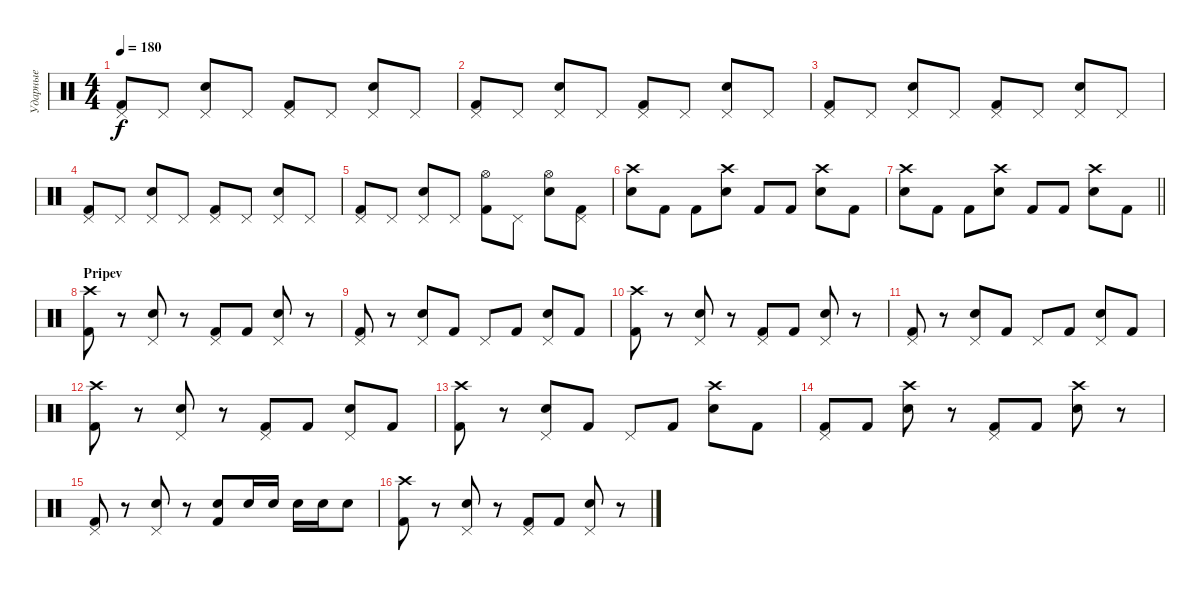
\track ("Ударные" "Ударные") {instrument percussion}
\staff {score}
\articulation defaults
\ts (4 4)
\tempo 180
\clef neutral
\ks c
("Pedal Hi-Hat (hit)" "Kick (hit) 2").8{dy f} "Pedal Hi-Hat (hit)".8 ("Pedal Hi-Hat (hit)" "Electric Snare (hit)").8 "Pedal Hi-Hat (hit)".8 ("Pedal Hi-Hat (hit)" "Kick (hit) 2").8 "Pedal Hi-Hat (hit)".8 ("Pedal Hi-Hat (hit)" "Electric Snare (hit)").8 "Pedal Hi-Hat (hit)".8 |
("Pedal Hi-Hat (hit)" "Kick (hit) 2").8 "Pedal Hi-Hat (hit)".8 ("Pedal Hi-Hat (hit)" "Electric Snare (hit)").8 "Pedal Hi-Hat (hit)".8 ("Pedal Hi-Hat (hit)" "Kick (hit) 2").8 "Pedal Hi-Hat (hit)".8 ("Pedal Hi-Hat (hit)" "Electric Snare (hit)").8 "Pedal Hi-Hat (hit)".8 |
("Pedal Hi-Hat (hit)" "Kick (hit) 2").8 "Pedal Hi-Hat (hit)".8 ("Pedal Hi-Hat (hit)" "Electric Snare (hit)").8 "Pedal Hi-Hat (hit)".8 ("Pedal Hi-Hat (hit)" "Kick (hit) 2").8 "Pedal Hi-Hat (hit)".8 ("Pedal Hi-Hat (hit)" "Electric Snare (hit)").8 "Pedal Hi-Hat (hit)".8 |
("Pedal Hi-Hat (hit)" "Kick (hit) 2").8 "Pedal Hi-Hat (hit)".8 ("Pedal Hi-Hat (hit)" "Electric Snare (hit)").8 "Pedal Hi-Hat (hit)".8 ("Pedal Hi-Hat (hit)" "Kick (hit) 2").8 "Pedal Hi-Hat (hit)".8 ("Pedal Hi-Hat (hit)" "Electric Snare (hit)").8 "Pedal Hi-Hat (hit)".8 |
("Pedal Hi-Hat (hit)" "Kick (hit) 2").8 "Pedal Hi-Hat (hit)".8 ("Pedal Hi-Hat (hit)" "Electric Snare (hit)").8 "Pedal Hi-Hat (hit)".8 ("Hi-Hat (open)" "Kick (hit) 2").8 "Pedal Hi-Hat (hit)".8 ("Hi-Hat (open)" "Electric Snare (hit)").8 ("Pedal Hi-Hat (hit)" "Kick (hit) 2").8 |
("Crash high (hit)" "Electric Snare (hit)").8 "Kick (hit) 2".8 "Kick (hit) 2".8 ("Crash high (hit)" "Electric Snare (hit)").8 "Kick (hit) 2".8 "Kick (hit) 2".8 ("Crash high (hit)" "Electric Snare (hit)").8 "Kick (hit) 2".8 |
\barLineRight lightlight
("Crash high (hit)" "Electric Snare (hit)").8 "Kick (hit) 2".8 "Kick (hit) 2".8 ("Crash high (hit)" "Electric Snare (hit)").8 "Kick (hit) 2".8 "Kick (hit) 2".8 ("Crash high (hit)" "Electric Snare (hit)").8 "Kick (hit) 2".8 |
\section ("" "Pripev")
("Crash high (hit)" "Kick (hit) 2").8 r.8 ("Pedal Hi-Hat (hit)" "Electric Snare (hit)").8 r.8 ("Pedal Hi-Hat (hit)" "Kick (hit) 2").8 "Kick (hit) 2".8 ("Pedal Hi-Hat (hit)" "Electric Snare (hit)").8 r.8 |
("Pedal Hi-Hat (hit)" "Kick (hit) 2").8 r.8 ("Pedal Hi-Hat (hit)" "Electric Snare (hit)").8 "Kick (hit) 2".8 "Pedal Hi-Hat (hit)".8 "Kick (hit) 2".8 ("Pedal Hi-Hat (hit)" "Electric Snare (hit)").8 "Kick (hit) 2".8 |
("Crash high (hit)" "Kick (hit) 2").8 r.8 ("Pedal Hi-Hat (hit)" "Electric Snare (hit)").8 r.8 ("Pedal Hi-Hat (hit)" "Kick (hit) 2").8 "Kick (hit) 2".8 ("Pedal Hi-Hat (hit)" "Electric Snare (hit)").8 r.8 |
("Pedal Hi-Hat (hit)" "Kick (hit) 2").8 r.8 ("Pedal Hi-Hat (hit)" "Electric Snare (hit)").8 "Kick (hit) 2".8 "Pedal Hi-Hat (hit)".8 "Kick (hit) 2".8 ("Pedal Hi-Hat (hit)" "Electric Snare (hit)").8 "Kick (hit) 2".8 |
("Crash high (hit)" "Kick (hit) 2").8 r.8 ("Pedal Hi-Hat (hit)" "Electric Snare (hit)").8 r.8 ("Pedal Hi-Hat (hit)" "Kick (hit) 2").8 "Kick (hit) 2".8 ("Pedal Hi-Hat (hit)" "Electric Snare (hit)").8 "Kick (hit) 2".8 |
("Crash high (hit)" "Kick (hit) 2").8 r.8 ("Pedal Hi-Hat (hit)" "Electric Snare (hit)").8 "Kick (hit) 2".8 "Pedal Hi-Hat (hit)".8 "Kick (hit) 2".8 ("Crash high (hit)" "Electric Snare (hit)").8 "Kick (hit) 2".8 |
("Pedal Hi-Hat (hit)" "Kick (hit) 2").8 "Kick (hit) 2".8 ("Crash high (hit)" "Electric Snare (hit)").8 r.8 ("Pedal Hi-Hat (hit)" "Kick (hit) 2").8 "Kick (hit) 2".8 ("Crash high (hit)" "Electric Snare (hit)").8 r.8 |
("Pedal Hi-Hat (hit)" "Kick (hit) 2").8 r.8 ("Pedal Hi-Hat (hit)" "Electric Snare (hit)").8 r.8 ("Electric Snare (hit)" "Kick (hit) 2").8 "Electric Snare (hit)".16 "Electric Snare (hit)".16 "Electric Snare (hit)".16 "Electric Snare (hit)".16 "Electric Snare (hit)".8 |
("Crash high (hit)" "Kick (hit) 2").8 r.8 ("Pedal Hi-Hat (hit)" "Electric Snare (hit)").8 r.8 ("Pedal Hi-Hat (hit)" "Kick (hit) 2").8 "Kick (hit) 2".8 ("Pedal Hi-Hat (hit)" "Electric Snare (hit)").8 r.8
